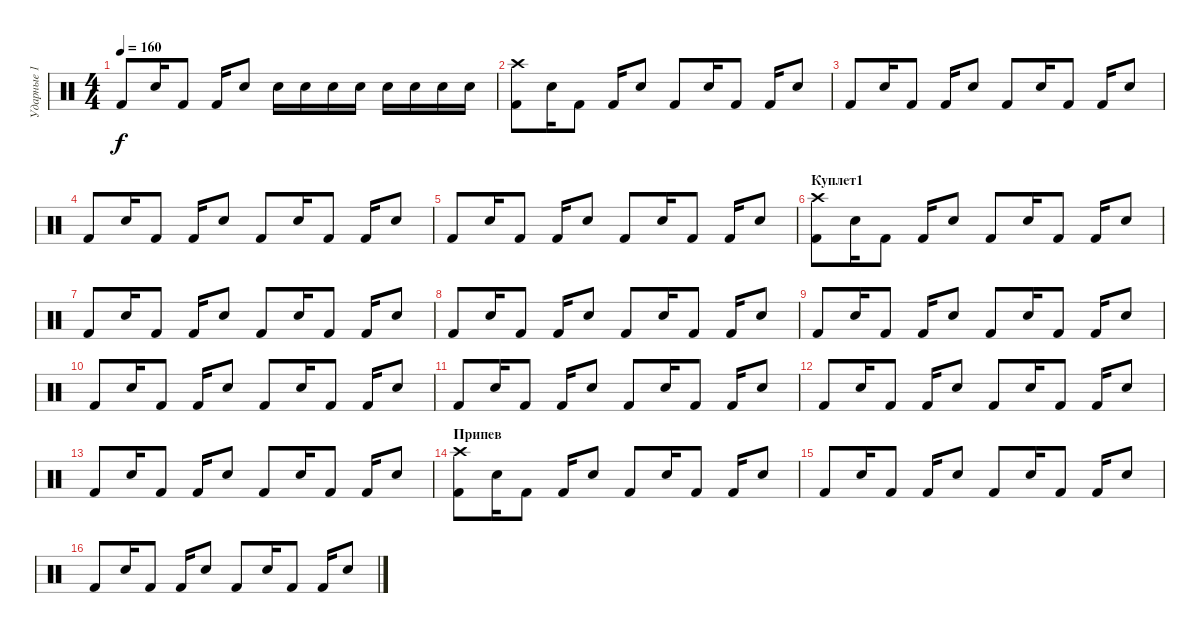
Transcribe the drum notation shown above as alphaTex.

\track ("Ударные 1" "Ударные 1") {instrument percussion}
\staff {score}
\articulation defaults
\ts (4 4)
\tempo 160
\clef neutral
\ks c "Kick (hit) 2".8{dy f} "Snare (hit) 2".16 "Kick (hit) 2".8 "Kick (hit) 2".16 "Snare (hit) 2".8 "Snare (hit) 2".16 "Snare (hit) 2".16 "Snare (hit) 2".16 "Snare (hit) 2".16 "Snare (hit) 2".16 "Snare (hit) 2".16 "Snare (hit) 2".16 "Snare (hit) 2".16
|
("Kick (hit) 2" "Crash high (hit)").8 "Snare (hit) 2".16 "Kick (hit) 2".8 "Kick (hit) 2".16 "Snare (hit) 2".8 "Kick (hit) 2".8 "Snare (hit) 2".16 "Kick (hit) 2".8 "Kick (hit) 2".16 "Snare (hit) 2".8 |
"Kick (hit) 2".8 "Snare (hit) 2".16 "Kick (hit) 2".8 "Kick (hit) 2".16 "Snare (hit) 2".8 "Kick (hit) 2".8 "Snare (hit) 2".16 "Kick (hit) 2".8 "Kick (hit) 2".16 "Snare (hit) 2".8 |
"Kick (hit) 2".8 "Snare (hit) 2".16 "Kick (hit) 2".8 "Kick (hit) 2".16 "Snare (hit) 2".8 "Kick (hit) 2".8 "Snare (hit) 2".16 "Kick (hit) 2".8 "Kick (hit) 2".16 "Snare (hit) 2".8 |
"Kick (hit) 2".8 "Snare (hit) 2".16 "Kick (hit) 2".8 "Kick (hit) 2".16 "Snare (hit) 2".8 "Kick (hit) 2".8 "Snare (hit) 2".16 "Kick (hit) 2".8 "Kick (hit) 2".16 "Snare (hit) 2".8 |
\section ("" "Куплет1")
("Kick (hit) 2" "Crash high (hit)").8 "Snare (hit) 2".16 "Kick (hit) 2".8 "Kick (hit) 2".16 "Snare (hit) 2".8 "Kick (hit) 2".8 "Snare (hit) 2".16 "Kick (hit) 2".8 "Kick (hit) 2".16 "Snare (hit) 2".8 |
"Kick (hit) 2".8 "Snare (hit) 2".16 "Kick (hit) 2".8 "Kick (hit) 2".16 "Snare (hit) 2".8 "Kick (hit) 2".8 "Snare (hit) 2".16 "Kick (hit) 2".8 "Kick (hit) 2".16 "Snare (hit) 2".8 |
"Kick (hit) 2".8 "Snare (hit) 2".16 "Kick (hit) 2".8 "Kick (hit) 2".16 "Snare (hit) 2".8 "Kick (hit) 2".8 "Snare (hit) 2".16 "Kick (hit) 2".8 "Kick (hit) 2".16 "Snare (hit) 2".8 |
"Kick (hit) 2".8 "Snare (hit) 2".16 "Kick (hit) 2".8 "Kick (hit) 2".16 "Snare (hit) 2".8 "Kick (hit) 2".8 "Snare (hit) 2".16 "Kick (hit) 2".8 "Kick (hit) 2".16 "Snare (hit) 2".8 |
"Kick (hit) 2".8 "Snare (hit) 2".16 "Kick (hit) 2".8 "Kick (hit) 2".16 "Snare (hit) 2".8 "Kick (hit) 2".8 "Snare (hit) 2".16 "Kick (hit) 2".8 "Kick (hit) 2".16 "Snare (hit) 2".8 |
"Kick (hit) 2".8 "Snare (hit) 2".16 "Kick (hit) 2".8 "Kick (hit) 2".16 "Snare (hit) 2".8 "Kick (hit) 2".8 "Snare (hit) 2".16 "Kick (hit) 2".8 "Kick (hit) 2".16 "Snare (hit) 2".8 |
"Kick (hit) 2".8 "Snare (hit) 2".16 "Kick (hit) 2".8 "Kick (hit) 2".16 "Snare (hit) 2".8 "Kick (hit) 2".8 "Snare (hit) 2".16 "Kick (hit) 2".8 "Kick (hit) 2".16 "Snare (hit) 2".8 |
"Kick (hit) 2".8 "Snare (hit) 2".16 "Kick (hit) 2".8 "Kick (hit) 2".16 "Snare (hit) 2".8 "Kick (hit) 2".8 "Snare (hit) 2".16 "Kick (hit) 2".8 "Kick (hit) 2".16 "Snare (hit) 2".8 |
\section ("" "Припев")
("Kick (hit) 2" "Crash high (hit)").8 "Snare (hit) 2".16 "Kick (hit) 2".8 "Kick (hit) 2".16 "Snare (hit) 2".8 "Kick (hit) 2".8 "Snare (hit) 2".16 "Kick (hit) 2".8 "Kick (hit) 2".16 "Snare (hit) 2".8 |
"Kick (hit) 2".8 "Snare (hit) 2".16 "Kick (hit) 2".8 "Kick (hit) 2".16 "Snare (hit) 2".8 "Kick (hit) 2".8 "Snare (hit) 2".16 "Kick (hit) 2".8 "Kick (hit) 2".16 "Snare (hit) 2".8 |
"Kick (hit) 2".8 "Snare (hit) 2".16 "Kick (hit) 2".8 "Kick (hit) 2".16 "Snare (hit) 2".8 "Kick (hit) 2".8 "Snare (hit) 2".16 "Kick (hit) 2".8 "Kick (hit) 2".16 "Snare (hit) 2".8
